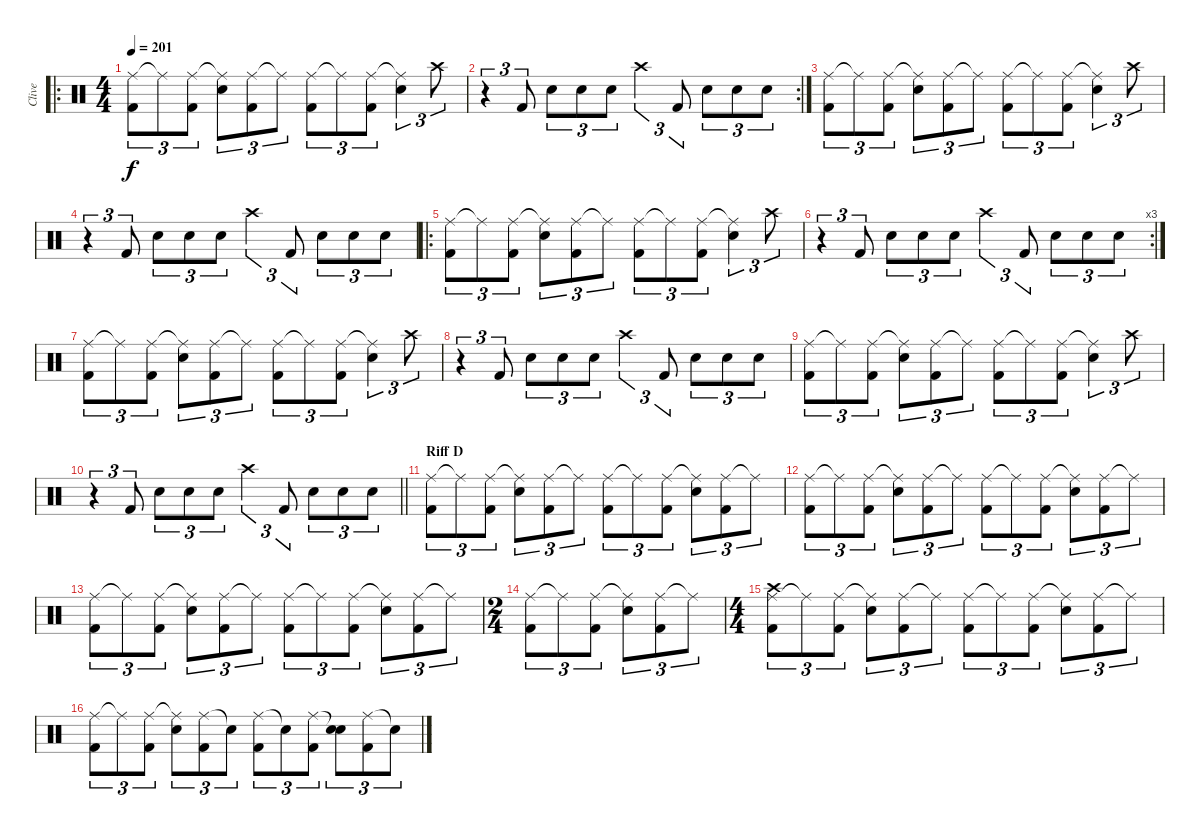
\track ("Clive" "Clive") {instrument percussion}
\staff {score}
\articulation defaults
\ro
\ts (4 4)
\tempo 201
\clef neutral
\ks c
("Ride (middle)" "Kick (hit) 2").8{tu (3 2) dy f} "Ride (middle)"{t}.8{tu (3 2)} ("Ride (middle)" "Kick (hit) 2").8{tu (3 2)} ("Ride (middle)"{t} "Snare (hit) 2").8{tu (3 2)} ("Ride (middle)" "Kick (hit) 2").8{tu (3 2)} "Ride (middle)"{t}.8{tu (3 2)} ("Ride (middle)" "Kick (hit) 2").8{tu (3 2)} "Ride (middle)"{t}.8{tu (3 2)} ("Ride (middle)" "Kick (hit) 2").8{tu (3 2)} ("Ride (middle)"{t} "Snare (hit) 2").4{tu (3 2)} "Crash high (hit)".8{tu (3 2)} |
\rc 2
r.4{tu (3 2)} "Kick (hit) 2".8{tu (3 2)} "Snare (hit) 2".8{tu (3 2)} "Snare (hit) 2".8{tu (3 2)} "Snare (hit) 2".8{tu (3 2)} "Crash high (hit)".4{tu (3 2)} "Kick (hit) 2".8{tu (3 2)} "Snare (hit) 2".8{tu (3 2)} "Snare (hit) 2".8{tu (3 2)} "Snare (hit) 2".8{tu (3 2)} |
("Ride (middle)" "Kick (hit) 2").8{tu (3 2)} "Ride (middle)"{t}.8{tu (3 2)} ("Ride (middle)" "Kick (hit) 2").8{tu (3 2)} ("Ride (middle)"{t} "Snare (hit) 2").8{tu (3 2)} ("Ride (middle)" "Kick (hit) 2").8{tu (3 2)} "Ride (middle)"{t}.8{tu (3 2)} ("Ride (middle)" "Kick (hit) 2").8{tu (3 2)} "Ride (middle)"{t}.8{tu (3 2)} ("Ride (middle)" "Kick (hit) 2").8{tu (3 2)} ("Ride (middle)"{t} "Snare (hit) 2").4{tu (3 2)} "Crash high (hit)".8{tu (3 2)} |
r.4{tu (3 2)} "Kick (hit) 2".8{tu (3 2)} "Snare (hit) 2".8{tu (3 2)} "Snare (hit) 2".8{tu (3 2)} "Snare (hit) 2".8{tu (3 2)} "Crash high (hit)".4{tu (3 2)} "Kick (hit) 2".8{tu (3 2)} "Snare (hit) 2".8{tu (3 2)} "Snare (hit) 2".8{tu (3 2)} "Snare (hit) 2".8{tu (3 2)} |
\ro
("Ride (middle)" "Kick (hit) 2").8{tu (3 2)} "Ride (middle)"{t}.8{tu (3 2)} ("Ride (middle)" "Kick (hit) 2").8{tu (3 2)} ("Ride (middle)"{t} "Snare (hit) 2").8{tu (3 2)} ("Ride (middle)" "Kick (hit) 2").8{tu (3 2)} "Ride (middle)"{t}.8{tu (3 2)} ("Ride (middle)" "Kick (hit) 2").8{tu (3 2)} "Ride (middle)"{t}.8{tu (3 2)} ("Ride (middle)" "Kick (hit) 2").8{tu (3 2)} ("Ride (middle)"{t} "Snare (hit) 2").4{tu (3 2)} "Crash high (hit)".8{tu (3 2)} |
\rc 3
r.4{tu (3 2)} "Kick (hit) 2".8{tu (3 2)} "Snare (hit) 2".8{tu (3 2)} "Snare (hit) 2".8{tu (3 2)} "Snare (hit) 2".8{tu (3 2)} "Crash high (hit)".4{tu (3 2)} "Kick (hit) 2".8{tu (3 2)} "Snare (hit) 2".8{tu (3 2)} "Snare (hit) 2".8{tu (3 2)} "Snare (hit) 2".8{tu (3 2)} |
("Ride (middle)" "Kick (hit) 2").8{tu (3 2)} "Ride (middle)"{t}.8{tu (3 2)} ("Ride (middle)" "Kick (hit) 2").8{tu (3 2)} ("Ride (middle)"{t} "Snare (hit) 2").8{tu (3 2)} ("Ride (middle)" "Kick (hit) 2").8{tu (3 2)} "Ride (middle)"{t}.8{tu (3 2)} ("Ride (middle)" "Kick (hit) 2").8{tu (3 2)} "Ride (middle)"{t}.8{tu (3 2)} ("Ride (middle)" "Kick (hit) 2").8{tu (3 2)} ("Ride (middle)"{t} "Snare (hit) 2").4{tu (3 2)} "Crash high (hit)".8{tu (3 2)} |
r.4{tu (3 2)} "Kick (hit) 2".8{tu (3 2)} "Snare (hit) 2".8{tu (3 2)} "Snare (hit) 2".8{tu (3 2)} "Snare (hit) 2".8{tu (3 2)} "Crash high (hit)".4{tu (3 2)} "Kick (hit) 2".8{tu (3 2)} "Snare (hit) 2".8{tu (3 2)} "Snare (hit) 2".8{tu (3 2)} "Snare (hit) 2".8{tu (3 2)} |
("Ride (middle)" "Kick (hit) 2").8{tu (3 2)} "Ride (middle)"{t}.8{tu (3 2)} ("Ride (middle)" "Kick (hit) 2").8{tu (3 2)} ("Ride (middle)"{t} "Snare (hit) 2").8{tu (3 2)} ("Ride (middle)" "Kick (hit) 2").8{tu (3 2)} "Ride (middle)"{t}.8{tu (3 2)} ("Ride (middle)" "Kick (hit) 2").8{tu (3 2)} "Ride (middle)"{t}.8{tu (3 2)} ("Ride (middle)" "Kick (hit) 2").8{tu (3 2)} ("Ride (middle)"{t} "Snare (hit) 2").4{tu (3 2)} "Crash high (hit)".8{tu (3 2)} |
\barLineRight lightlight
r.4{tu (3 2)} "Kick (hit) 2".8{tu (3 2)} "Snare (hit) 2".8{tu (3 2)} "Snare (hit) 2".8{tu (3 2)} "Snare (hit) 2".8{tu (3 2)} "Crash high (hit)".4{tu (3 2)} "Kick (hit) 2".8{tu (3 2)} "Snare (hit) 2".8{tu (3 2)} "Snare (hit) 2".8{tu (3 2)} "Snare (hit) 2".8{tu (3 2)} |
\section ("" "Riff D")
("Ride (middle)" "Kick (hit) 2").8{tu (3 2)} "Ride (middle)"{t}.8{tu (3 2)} ("Ride (middle)" "Kick (hit) 2").8{tu (3 2)} ("Ride (middle)"{t} "Snare (hit) 2").8{tu (3 2)} ("Ride (middle)" "Kick (hit) 2").8{tu (3 2)} "Ride (middle)"{t}.8{tu (3 2)} ("Ride (middle)" "Kick (hit) 2").8{tu (3 2)} "Ride (middle)"{t}.8{tu (3 2)} ("Ride (middle)" "Kick (hit) 2").8{tu (3 2)} ("Ride (middle)"{t} "Snare (hit) 2").8{tu (3 2)} ("Ride (middle)" "Kick (hit) 2").8{tu (3 2)} "Ride (middle)"{t}.8{tu (3 2)} |
("Ride (middle)" "Kick (hit) 2").8{tu (3 2)} "Ride (middle)"{t}.8{tu (3 2)} ("Ride (middle)" "Kick (hit) 2").8{tu (3 2)} ("Ride (middle)"{t} "Snare (hit) 2").8{tu (3 2)} ("Ride (middle)" "Kick (hit) 2").8{tu (3 2)} "Ride (middle)"{t}.8{tu (3 2)} ("Ride (middle)" "Kick (hit) 2").8{tu (3 2)} "Ride (middle)"{t}.8{tu (3 2)} ("Ride (middle)" "Kick (hit) 2").8{tu (3 2)} ("Ride (middle)"{t} "Snare (hit) 2").8{tu (3 2)} ("Ride (middle)" "Kick (hit) 2").8{tu (3 2)} "Ride (middle)"{t}.8{tu (3 2)} |
("Ride (middle)" "Kick (hit) 2").8{tu (3 2)} "Ride (middle)"{t}.8{tu (3 2)} ("Ride (middle)" "Kick (hit) 2").8{tu (3 2)} ("Ride (middle)"{t} "Snare (hit) 2").8{tu (3 2)} ("Ride (middle)" "Kick (hit) 2").8{tu (3 2)} "Ride (middle)"{t}.8{tu (3 2)} ("Ride (middle)" "Kick (hit) 2").8{tu (3 2)} "Ride (middle)"{t}.8{tu (3 2)} ("Ride (middle)" "Kick (hit) 2").8{tu (3 2)} ("Ride (middle)"{t} "Snare (hit) 2").8{tu (3 2)} ("Ride (middle)" "Kick (hit) 2").8{tu (3 2)} "Ride (middle)"{t}.8{tu (3 2)} |
\ts (2 4)
("Ride (middle)" "Kick (hit) 2").8{tu (3 2)} "Ride (middle)"{t}.8{tu (3 2)} ("Ride (middle)" "Kick (hit) 2").8{tu (3 2)} ("Ride (middle)"{t} "Snare (hit) 2").8{tu (3 2)} ("Ride (middle)" "Kick (hit) 2").8{tu (3 2)} "Ride (middle)"{t}.8{tu (3 2)} |
\ts (4 4)
("Ride (middle)" "Kick (hit) 2" "Crash high (hit)").8{tu (3 2)} "Ride (middle)"{t}.8{tu (3 2)} ("Ride (middle)" "Kick (hit) 2").8{tu (3 2)} ("Ride (middle)"{t} "Snare (hit) 2").8{tu (3 2)} ("Ride (middle)" "Kick (hit) 2").8{tu (3 2)} "Ride (middle)"{t}.8{tu (3 2)} ("Ride (middle)" "Kick (hit) 2").8{tu (3 2)} "Ride (middle)"{t}.8{tu (3 2)} ("Ride (middle)" "Kick (hit) 2").8{tu (3 2)} ("Ride (middle)"{t} "Snare (hit) 2").8{tu (3 2)} ("Ride (middle)" "Kick (hit) 2").8{tu (3 2)} "Ride (middle)"{t}.8{tu (3 2)} |
("Ride (middle)" "Kick (hit) 2").8{tu (3 2)} "Ride (middle)"{t}.8{tu (3 2)} ("Ride (middle)" "Kick (hit) 2").8{tu (3 2)} ("Ride (middle)"{t} "Snare (hit) 2").8{tu (3 2)} ("Ride (middle)" "Kick (hit) 2").8{tu (3 2)} "Snare (hit)"{t}.8{tu (3 2)} ("Ride (middle)" "Kick (hit) 2").8{tu (3 2)} "Snare (hit)"{t}.8{tu (3 2)} ("Ride (middle)" "Kick (hit) 2").8{tu (3 2)} ("Snare (hit)"{t} "Snare (hit) 2").8{tu (3 2)} ("Ride (middle)" "Kick (hit) 2").8{tu (3 2)} "Snare (hit)"{t}.8{tu (3 2)}
